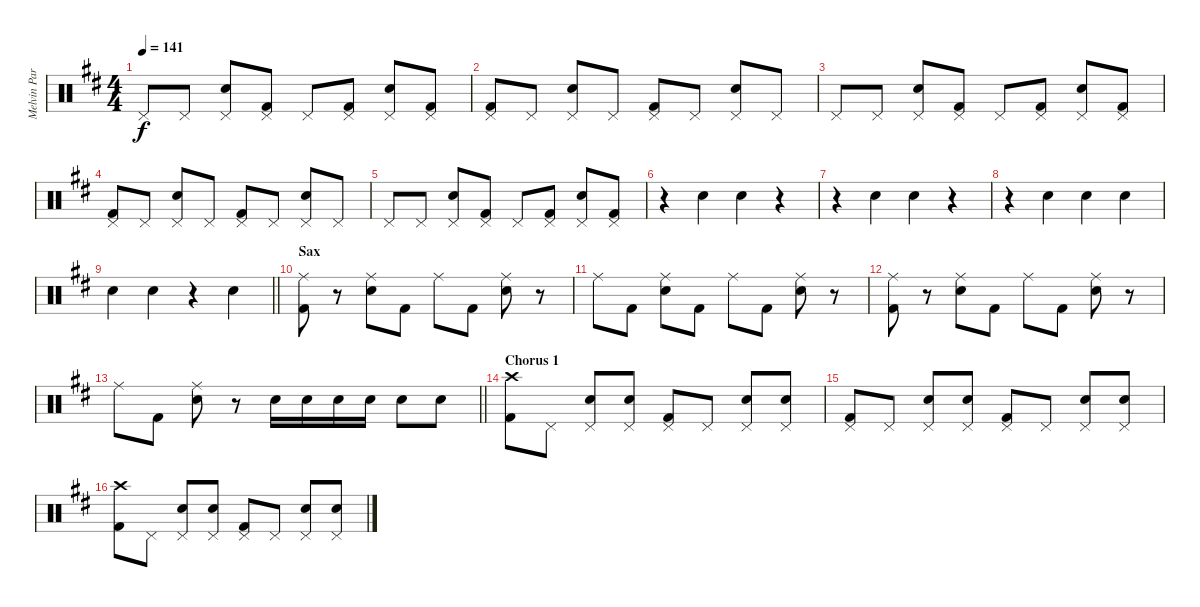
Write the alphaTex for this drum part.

\track ("Melvin Parker - Drums " "Melvin Par") {instrument percussion}
\staff {score}
\articulation defaults
\ts (4 4)
\tempo 141
\clef neutral
\ks d "Pedal Hi-Hat (hit)".8{dy f} "Pedal Hi-Hat (hit)".8
("Pedal Hi-Hat (hit)" "Electric Snare (hit)").8 ("Pedal Hi-Hat (hit)" "Kick (hit) 2").8 "Pedal Hi-Hat (hit)".8 ("Pedal Hi-Hat (hit)" "Kick (hit) 2").8 ("Pedal Hi-Hat (hit)" "Electric Snare (hit)").8 ("Pedal Hi-Hat (hit)" "Kick (hit) 2").8 |
("Pedal Hi-Hat (hit)" "Kick (hit) 2").8 "Pedal Hi-Hat (hit)".8 ("Pedal Hi-Hat (hit)" "Electric Snare (hit)").8 "Pedal Hi-Hat (hit)".8 ("Pedal Hi-Hat (hit)" "Kick (hit) 2").8 "Pedal Hi-Hat (hit)".8 ("Pedal Hi-Hat (hit)" "Electric Snare (hit)").8 "Pedal Hi-Hat (hit)".8 |
"Pedal Hi-Hat (hit)".8 "Pedal Hi-Hat (hit)".8 ("Pedal Hi-Hat (hit)" "Electric Snare (hit)").8 ("Pedal Hi-Hat (hit)" "Kick (hit) 2").8 "Pedal Hi-Hat (hit)".8 ("Pedal Hi-Hat (hit)" "Kick (hit) 2").8 ("Pedal Hi-Hat (hit)" "Electric Snare (hit)").8 ("Pedal Hi-Hat (hit)" "Kick (hit) 2").8 |
("Pedal Hi-Hat (hit)" "Kick (hit) 2").8 "Pedal Hi-Hat (hit)".8 ("Pedal Hi-Hat (hit)" "Electric Snare (hit)").8 "Pedal Hi-Hat (hit)".8 ("Pedal Hi-Hat (hit)" "Kick (hit) 2").8 "Pedal Hi-Hat (hit)".8 ("Pedal Hi-Hat (hit)" "Electric Snare (hit)").8 "Pedal Hi-Hat (hit)".8 |
"Pedal Hi-Hat (hit)".8 "Pedal Hi-Hat (hit)".8 ("Pedal Hi-Hat (hit)" "Electric Snare (hit)").8 ("Pedal Hi-Hat (hit)" "Kick (hit) 2").8 "Pedal Hi-Hat (hit)".8 ("Pedal Hi-Hat (hit)" "Kick (hit) 2").8 ("Pedal Hi-Hat (hit)" "Electric Snare (hit)").8 ("Pedal Hi-Hat (hit)" "Kick (hit) 2").8 |
r.4 "Electric Snare (hit)".4 "Electric Snare (hit)".4 r.4 |
r.4 "Electric Snare (hit)".4 "Electric Snare (hit)".4 r.4 |
r.4 "Electric Snare (hit)".4 "Electric Snare (hit)".4 "Electric Snare (hit)".4 |
\barLineRight lightlight "Electric Snare (hit)".4 "Electric Snare (hit)".4
r.4 "Electric Snare (hit)".4 |
\section ("" "Sax")
("Ride (middle)" "Kick (hit) 2").8 r.8 ("Ride (middle)" "Electric Snare (hit)").8 "Kick (hit) 2".8 "Ride (middle)".8 "Kick (hit) 2".8 ("Ride (middle)" "Electric Snare (hit)").8 r.8 |
"Ride (middle)".8 "Kick (hit) 2".8 ("Ride (middle)" "Electric Snare (hit)").8 "Kick (hit) 2".8 "Ride (middle)".8 "Kick (hit) 2".8 ("Ride (middle)" "Electric Snare (hit)").8 r.8 |
("Ride (middle)" "Kick (hit) 2").8 r.8 ("Ride (middle)" "Electric Snare (hit)").8 "Kick (hit) 2".8 "Ride (middle)".8 "Kick (hit) 2".8 ("Ride (middle)" "Electric Snare (hit)").8 r.8 |
\barLineRight lightlight "Ride (middle)".8 "Kick (hit) 2".8
("Ride (middle)" "Electric Snare (hit)").8 r.8 "Electric Snare (hit)".16 "Electric Snare (hit)".16 "Electric Snare (hit)".16 "Electric Snare (hit)".16 "Electric Snare (hit)".8 "Electric Snare (hit)".8 |
\section ("" "Chorus 1")
("Crash high (hit)" "Kick (hit) 2").8 "Pedal Hi-Hat (hit)".8 ("Pedal Hi-Hat (hit)" "Electric Snare (hit)").8 ("Pedal Hi-Hat (hit)" "Electric Snare (hit)").8 ("Pedal Hi-Hat (hit)" "Kick (hit) 2").8 "Pedal Hi-Hat (hit)".8 ("Pedal Hi-Hat (hit)" "Electric Snare (hit)").8 ("Pedal Hi-Hat (hit)" "Electric Snare (hit)").8 |
("Pedal Hi-Hat (hit)" "Kick (hit) 2").8 "Pedal Hi-Hat (hit)".8 ("Pedal Hi-Hat (hit)" "Electric Snare (hit)").8 ("Pedal Hi-Hat (hit)" "Electric Snare (hit)").8 ("Pedal Hi-Hat (hit)" "Kick (hit) 2").8 "Pedal Hi-Hat (hit)".8 ("Pedal Hi-Hat (hit)" "Electric Snare (hit)").8 ("Pedal Hi-Hat (hit)" "Electric Snare (hit)").8 |
("Crash high (hit)" "Kick (hit) 2").8 "Pedal Hi-Hat (hit)".8 ("Pedal Hi-Hat (hit)" "Electric Snare (hit)").8 ("Pedal Hi-Hat (hit)" "Electric Snare (hit)").8 ("Pedal Hi-Hat (hit)" "Kick (hit) 2").8 "Pedal Hi-Hat (hit)".8 ("Pedal Hi-Hat (hit)" "Electric Snare (hit)").8 ("Pedal Hi-Hat (hit)" "Electric Snare (hit)").8
